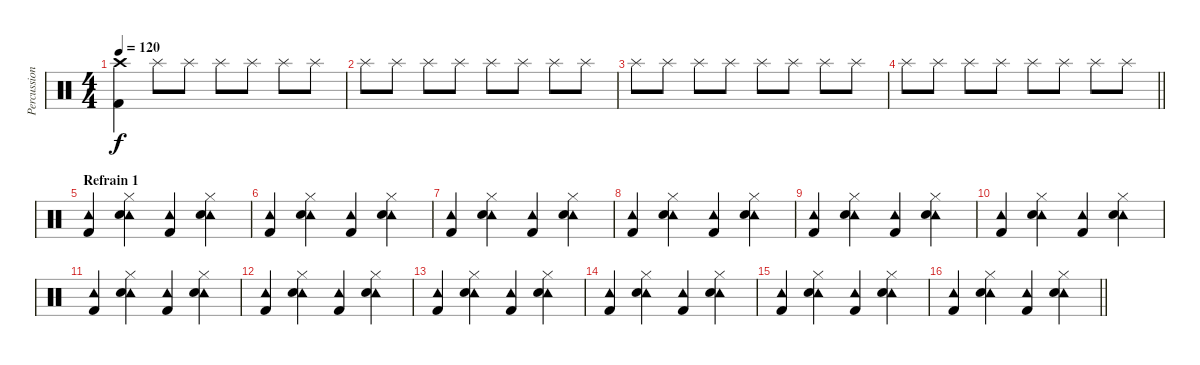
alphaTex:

\track ("Percussions" "Percussion") {instrument percussion}
\staff {score}
\articulation defaults
\ts (4 4)
\tempo 120
\clef neutral
\ks c
("Crash high (hit)" "Kick (hit) 2").4{dy f} "Splash (hit)".8 "Splash (hit)".8 "Splash (hit)".8 "Splash (hit)".8 "Splash (hit)".8 "Splash (hit)".8 |
"Splash (hit)".8 "Splash (hit)".8 "Splash (hit)".8 "Splash (hit)".8 "Splash (hit)".8 "Splash (hit)".8 "Splash (hit)".8 "Splash (hit)".8 |
"Splash (hit)".8 "Splash (hit)".8 "Splash (hit)".8 "Splash (hit)".8 "Splash (hit)".8 "Splash (hit)".8 "Splash (hit)".8 "Splash (hit)".8 |
\barLineRight lightlight "Splash (hit)".8 "Splash (hit)".8 "Splash (hit)".8 "Splash (hit)".8 "Splash (hit)".8 "Splash (hit)".8 "Splash (hit)".8 "Splash (hit)".8
|
\section ("" "Refrain 1")
("Tambourine (hit)" "Kick (hit) 2").4 ("Tambourine (hit)" "Hi-Hat (closed)" "Snare (hit) 2").4 ("Tambourine (hit)" "Kick (hit) 2").4 ("Tambourine (hit)" "Hi-Hat (closed)" "Snare (hit) 2").4 |
("Tambourine (hit)" "Kick (hit) 2").4 ("Tambourine (hit)" "Hi-Hat (closed)" "Snare (hit) 2").4 ("Tambourine (hit)" "Kick (hit) 2").4 ("Tambourine (hit)" "Hi-Hat (closed)" "Snare (hit) 2").4 |
("Tambourine (hit)" "Kick (hit) 2").4 ("Tambourine (hit)" "Hi-Hat (closed)" "Snare (hit) 2").4 ("Tambourine (hit)" "Kick (hit) 2").4 ("Tambourine (hit)" "Hi-Hat (closed)" "Snare (hit) 2").4 |
("Tambourine (hit)" "Kick (hit) 2").4 ("Tambourine (hit)" "Hi-Hat (closed)" "Snare (hit) 2").4 ("Tambourine (hit)" "Kick (hit) 2").4 ("Tambourine (hit)" "Hi-Hat (closed)" "Snare (hit) 2").4 |
("Tambourine (hit)" "Kick (hit) 2").4 ("Tambourine (hit)" "Hi-Hat (closed)" "Snare (hit) 2").4 ("Tambourine (hit)" "Kick (hit) 2").4 ("Tambourine (hit)" "Hi-Hat (closed)" "Snare (hit) 2").4 |
("Tambourine (hit)" "Kick (hit) 2").4 ("Tambourine (hit)" "Hi-Hat (closed)" "Snare (hit) 2").4 ("Tambourine (hit)" "Kick (hit) 2").4 ("Tambourine (hit)" "Hi-Hat (closed)" "Snare (hit) 2").4 |
("Tambourine (hit)" "Kick (hit) 2").4 ("Tambourine (hit)" "Hi-Hat (closed)" "Snare (hit) 2").4 ("Tambourine (hit)" "Kick (hit) 2").4 ("Tambourine (hit)" "Hi-Hat (closed)" "Snare (hit) 2").4 |
("Tambourine (hit)" "Kick (hit) 2").4 ("Tambourine (hit)" "Hi-Hat (closed)" "Snare (hit) 2").4 ("Tambourine (hit)" "Kick (hit) 2").4 ("Tambourine (hit)" "Hi-Hat (closed)" "Snare (hit) 2").4 |
("Tambourine (hit)" "Kick (hit) 2").4 ("Tambourine (hit)" "Hi-Hat (closed)" "Snare (hit) 2").4 ("Tambourine (hit)" "Kick (hit) 2").4 ("Tambourine (hit)" "Hi-Hat (closed)" "Snare (hit) 2").4 |
("Tambourine (hit)" "Kick (hit) 2").4 ("Tambourine (hit)" "Hi-Hat (closed)" "Snare (hit) 2").4 ("Tambourine (hit)" "Kick (hit) 2").4 ("Tambourine (hit)" "Hi-Hat (closed)" "Snare (hit) 2").4 |
("Tambourine (hit)" "Kick (hit) 2").4 ("Tambourine (hit)" "Hi-Hat (closed)" "Snare (hit) 2").4 ("Tambourine (hit)" "Kick (hit) 2").4 ("Tambourine (hit)" "Hi-Hat (closed)" "Snare (hit) 2").4 |
\barLineRight lightlight
("Tambourine (hit)" "Kick (hit) 2").4 ("Tambourine (hit)" "Hi-Hat (closed)" "Snare (hit) 2").4 ("Tambourine (hit)" "Kick (hit) 2").4 ("Tambourine (hit)" "Hi-Hat (closed)" "Snare (hit) 2").4
